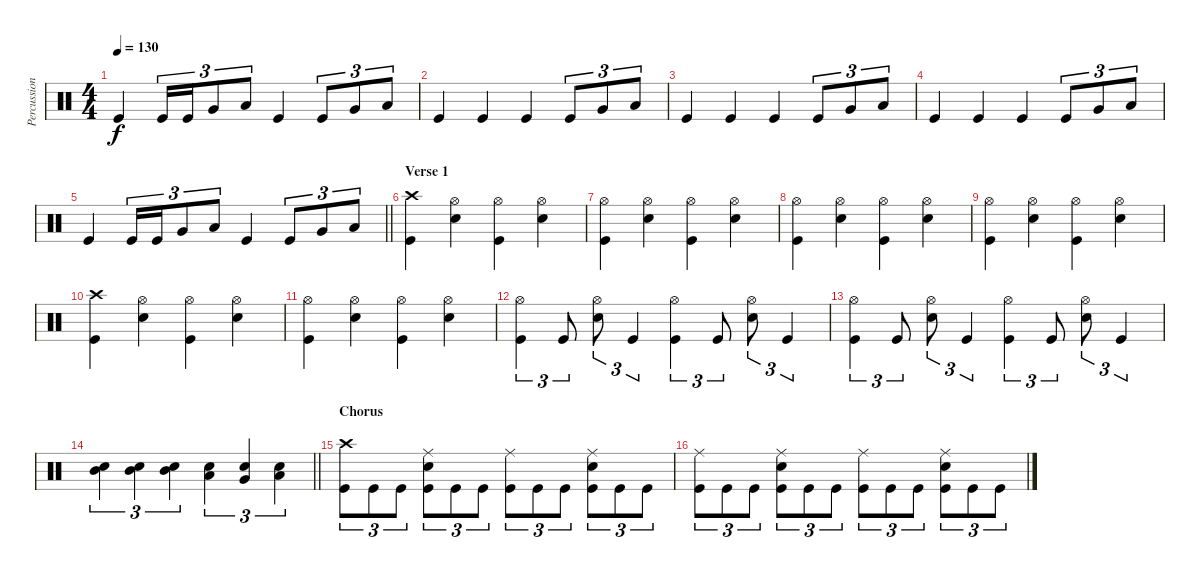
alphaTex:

\track ("Percussioni" "Percussion") {instrument percussion}
\staff {score}
\articulation defaults
\ts (4 4)
\tempo 130
\clef neutral
\ks c "Kick (hit)".4{dy f} "Kick (hit)".16{tu (3 2)} "Kick (hit)".16{tu (3 2)} "Very Low Tom (hit)".8{tu (3 2) balance 11} "Low Floor Tom (hit)".8{tu (3 2) balance 8} "Kick (hit)".4 "Kick (hit)".8{tu (3 2)} "Very Low Tom (hit)".8{tu (3 2) balance 11} "Low Floor Tom (hit)".8{tu (3 2) balance 8}
|
"Kick (hit)".4 "Kick (hit)".4 "Kick (hit)".4 "Kick (hit)".8{tu (3 2)} "Very Low Tom (hit)".8{tu (3 2) balance 11} "Low Floor Tom (hit)".8{tu (3 2) balance 8} |
"Kick (hit)".4 "Kick (hit)".4 "Kick (hit)".4 "Kick (hit)".8{tu (3 2)} "Very Low Tom (hit)".8{tu (3 2) balance 11} "Low Floor Tom (hit)".8{tu (3 2) balance 8} |
"Kick (hit)".4 "Kick (hit)".4 "Kick (hit)".4 "Kick (hit)".8{tu (3 2)} "Very Low Tom (hit)".8{tu (3 2) balance 11} "Low Floor Tom (hit)".8{tu (3 2) balance 8} |
\barLineRight lightlight "Kick (hit)".4 "Kick (hit)".16{tu (3 2)} "Kick (hit)".16{tu (3 2)} "Very Low Tom (hit)".8{tu (3 2) balance 11} "Low Floor Tom (hit)".8{tu (3 2) balance 8} "Kick (hit)".4 "Kick (hit)".8{tu (3 2)} "Very Low Tom (hit)".8{tu (3 2) balance 11} "Low Floor Tom (hit)".8{tu (3 2) balance 8}
|
\section ("" "Verse 1")
("Kick (hit)" "Crash high (hit)").4 ("Snare (hit) 2" "Hi-Hat (open)").4 ("Kick (hit)" "Hi-Hat (open)").4 ("Snare (hit) 2" "Hi-Hat (open)").4 |
("Kick (hit)" "Hi-Hat (open)").4 ("Snare (hit) 2" "Hi-Hat (open)").4 ("Kick (hit)" "Hi-Hat (open)").4 ("Snare (hit) 2" "Hi-Hat (open)").4 |
("Kick (hit)" "Hi-Hat (open)").4 ("Snare (hit) 2" "Hi-Hat (open)").4 ("Kick (hit)" "Hi-Hat (open)").4 ("Snare (hit) 2" "Hi-Hat (open)").4 |
("Kick (hit)" "Hi-Hat (open)").4 ("Snare (hit) 2" "Hi-Hat (open)").4 ("Kick (hit)" "Hi-Hat (open)").4 ("Snare (hit) 2" "Hi-Hat (open)").4 |
("Kick (hit)" "Crash high (hit)").4 ("Snare (hit) 2" "Hi-Hat (open)").4 ("Kick (hit)" "Hi-Hat (open)").4 ("Snare (hit) 2" "Hi-Hat (open)").4 |
("Kick (hit)" "Hi-Hat (open)").4 ("Snare (hit) 2" "Hi-Hat (open)").4 ("Kick (hit)" "Hi-Hat (open)").4 ("Snare (hit) 2" "Hi-Hat (open)").4 |
("Kick (hit)" "Hi-Hat (open)").4{tu (3 2)} "Kick (hit)".8{tu (3 2)} ("Snare (hit) 2" "Hi-Hat (open)").8{tu (3 2)} "Kick (hit)".4{tu (3 2)} ("Kick (hit)" "Hi-Hat (open)").4{tu (3 2)} "Kick (hit)".8{tu (3 2)} ("Snare (hit) 2" "Hi-Hat (open)").8{tu (3 2)} "Kick (hit)".4{tu (3 2)} |
("Kick (hit)" "Hi-Hat (open)").4{tu (3 2)} "Kick (hit)".8{tu (3 2)} ("Snare (hit) 2" "Hi-Hat (open)").8{tu (3 2)} "Kick (hit)".4{tu (3 2)} ("Kick (hit)" "Hi-Hat (open)").4{tu (3 2)} "Kick (hit)".8{tu (3 2)} ("Snare (hit) 2" "Hi-Hat (open)").8{tu (3 2)} "Kick (hit)".4{tu (3 2)} |
\barLineRight lightlight
("Snare (hit) 2" "Mid Tom (hit)").4{tu (3 2)} ("Snare (hit) 2" "Mid Tom (hit)").4{tu (3 2)} ("Snare (hit) 2" "Mid Tom (hit)").4{tu (3 2)} ("Snare (hit) 2" "Low Tom (hit)").4{tu (3 2)} ("Snare (hit) 2" "Very Low Tom (hit)").4{tu (3 2)} ("Snare (hit) 2" "Low Floor Tom (hit)").4{tu (3 2)} |
\section ("" "Chorus")
("Kick (hit)" "Crash high (hit)").8{tu (3 2)} "Kick (hit)".8{tu (3 2)} "Kick (hit)".8{tu (3 2)} ("Kick (hit)" "Snare (hit) 2" "Ride (middle)").8{tu (3 2)} "Kick (hit)".8{tu (3 2)} "Kick (hit)".8{tu (3 2)} ("Kick (hit)" "Ride (middle)").8{tu (3 2)} "Kick (hit)".8{tu (3 2)} "Kick (hit)".8{tu (3 2)} ("Kick (hit)" "Snare (hit) 2" "Ride (middle)").8{tu (3 2)} "Kick (hit)".8{tu (3 2)} "Kick (hit)".8{tu (3 2)} |
("Kick (hit)" "Ride (middle)").8{tu (3 2)} "Kick (hit)".8{tu (3 2)} "Kick (hit)".8{tu (3 2)} ("Kick (hit)" "Snare (hit) 2" "Ride (middle)").8{tu (3 2)} "Kick (hit)".8{tu (3 2)} "Kick (hit)".8{tu (3 2)} ("Kick (hit)" "Ride (middle)").8{tu (3 2)} "Kick (hit)".8{tu (3 2)} "Kick (hit)".8{tu (3 2)} ("Kick (hit)" "Snare (hit) 2" "Ride (middle)").8{tu (3 2)} "Kick (hit)".8{tu (3 2)} "Kick (hit)".8{tu (3 2)}
